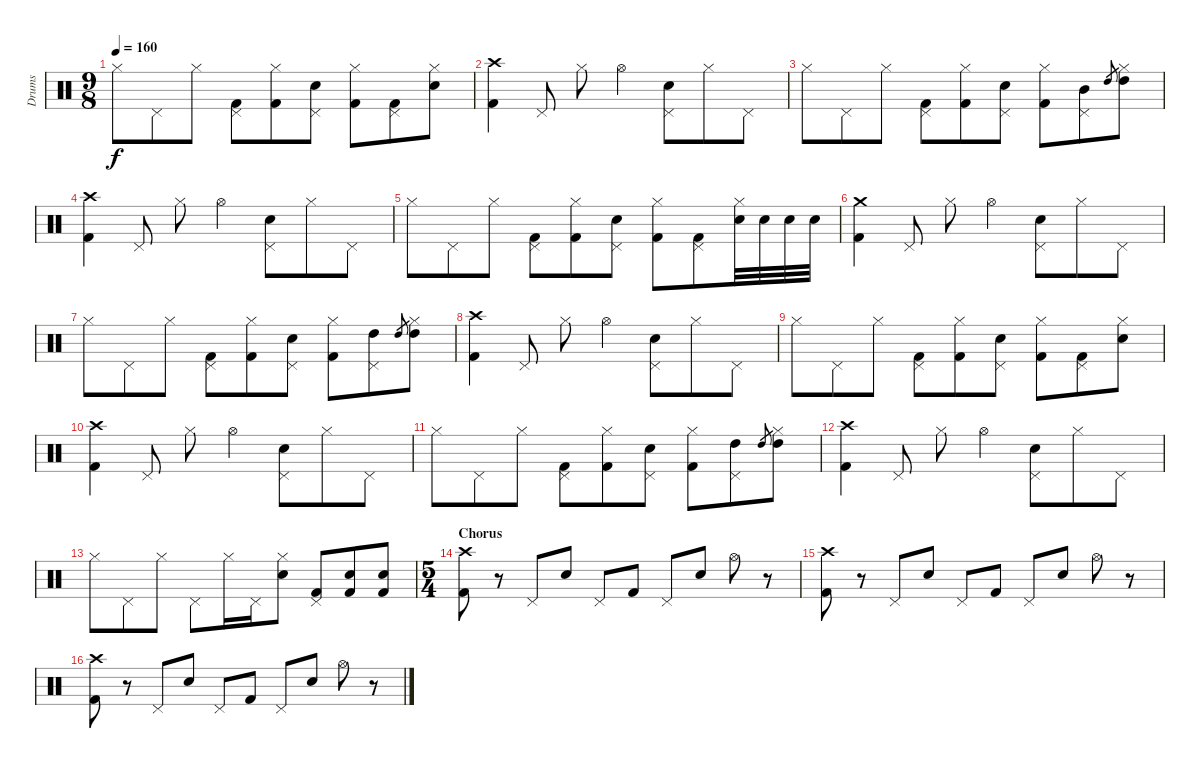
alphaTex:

\track ("Drums" "Drums") {instrument percussion}
\staff {score}
\articulation defaults
\ts (9 8)
\tempo 160
\clef neutral
\ks c "Hi-Hat (closed)".8{dy f} "Pedal Hi-Hat (hit)".8 "Hi-Hat (closed)".8
("Pedal Hi-Hat (hit)" "Kick (hit) 2").8 ("Hi-Hat (closed)" "Kick (hit) 2").8 ("Pedal Hi-Hat (hit)" "Electric Snare (hit)").8 ("Hi-Hat (closed)" "Kick (hit) 2").8 ("Pedal Hi-Hat (hit)" "Kick (hit) 2").8 ("Hi-Hat (closed)" "Electric Snare (hit)").8 |
("Crash high (hit)" "Kick (hit) 2").4 "Pedal Hi-Hat (hit)".8 "Hi-Hat (closed)".8 "Hi-Hat (open)".4 ("Pedal Hi-Hat (hit)" "Electric Snare (hit)").8 "Hi-Hat (closed)".8 "Pedal Hi-Hat (hit)".8 |
"Hi-Hat (closed)".8 "Pedal Hi-Hat (hit)".8 "Hi-Hat (closed)".8 ("Pedal Hi-Hat (hit)" "Kick (hit) 2").8 ("Hi-Hat (closed)" "Kick (hit) 2").8 ("Pedal Hi-Hat (hit)" "Electric Snare (hit)").8 ("Hi-Hat (closed)" "Kick (hit) 2").8 ("Pedal Hi-Hat (hit)" "Mid Tom (hit)").8 "High Tom (hit)".8{gr} ("Hi-Hat (closed)" "High Tom (hit)").8 |
("Crash high (hit)" "Kick (hit) 2").4 "Pedal Hi-Hat (hit)".8 "Hi-Hat (closed)".8 "Hi-Hat (open)".4 ("Pedal Hi-Hat (hit)" "Electric Snare (hit)").8 "Hi-Hat (closed)".8 "Pedal Hi-Hat (hit)".8 |
"Hi-Hat (closed)".8 "Pedal Hi-Hat (hit)".8 "Hi-Hat (closed)".8 ("Pedal Hi-Hat (hit)" "Kick (hit) 2").8 ("Hi-Hat (closed)" "Kick (hit) 2").8 ("Pedal Hi-Hat (hit)" "Electric Snare (hit)").8 ("Hi-Hat (closed)" "Kick (hit) 2").8 ("Pedal Hi-Hat (hit)" "Kick (hit) 2").8 ("Hi-Hat (closed)" "Electric Snare (hit)").32 "Electric Snare (hit)".32 "Electric Snare (hit)".32 "Electric Snare (hit)".32 |
("Crash medium (hit)" "Kick (hit) 2").4 "Pedal Hi-Hat (hit)".8 "Hi-Hat (closed)".8 "Hi-Hat (open)".4 ("Pedal Hi-Hat (hit)" "Electric Snare (hit)").8 "Hi-Hat (closed)".8 "Pedal Hi-Hat (hit)".8 |
"Hi-Hat (closed)".8 "Pedal Hi-Hat (hit)".8 "Hi-Hat (closed)".8 ("Pedal Hi-Hat (hit)" "Kick (hit) 2").8 ("Hi-Hat (closed)" "Kick (hit) 2").8 ("Pedal Hi-Hat (hit)" "Electric Snare (hit)").8 ("Hi-Hat (closed)" "Kick (hit) 2").8 ("Pedal Hi-Hat (hit)" "High Tom (hit)").8 "High Tom (hit)".8{gr} ("Hi-Hat (closed)" "High Tom (hit)").8 |
("Crash high (hit)" "Kick (hit) 2").4 "Pedal Hi-Hat (hit)".8 "Hi-Hat (closed)".8 "Hi-Hat (open)".4 ("Pedal Hi-Hat (hit)" "Electric Snare (hit)").8 "Hi-Hat (closed)".8 "Pedal Hi-Hat (hit)".8 |
"Hi-Hat (closed)".8 "Pedal Hi-Hat (hit)".8 "Hi-Hat (closed)".8 ("Pedal Hi-Hat (hit)" "Kick (hit) 2").8 ("Hi-Hat (closed)" "Kick (hit) 2").8 ("Pedal Hi-Hat (hit)" "Electric Snare (hit)").8 ("Hi-Hat (closed)" "Kick (hit) 2").8 ("Pedal Hi-Hat (hit)" "Kick (hit) 2").8 ("Hi-Hat (closed)" "Electric Snare (hit)").8 |
("Crash high (hit)" "Kick (hit) 2").4 "Pedal Hi-Hat (hit)".8 "Hi-Hat (closed)".8 "Hi-Hat (open)".4 ("Pedal Hi-Hat (hit)" "Electric Snare (hit)").8 "Hi-Hat (closed)".8 "Pedal Hi-Hat (hit)".8 |
"Hi-Hat (closed)".8 "Pedal Hi-Hat (hit)".8 "Hi-Hat (closed)".8 ("Pedal Hi-Hat (hit)" "Kick (hit) 2").8 ("Hi-Hat (closed)" "Kick (hit) 2").8 ("Pedal Hi-Hat (hit)" "Electric Snare (hit)").8 ("Hi-Hat (closed)" "Kick (hit) 2").8 ("Pedal Hi-Hat (hit)" "High Tom (hit)").8 "High Tom (hit)".8{gr} ("Hi-Hat (closed)" "High Tom (hit)").8 |
("Crash high (hit)" "Kick (hit) 2").4 "Pedal Hi-Hat (hit)".8 "Hi-Hat (closed)".8 "Hi-Hat (open)".4 ("Pedal Hi-Hat (hit)" "Electric Snare (hit)").8 "Hi-Hat (closed)".8 "Pedal Hi-Hat (hit)".8 |
"Hi-Hat (closed)".8 "Pedal Hi-Hat (hit)".8 "Hi-Hat (closed)".8 "Pedal Hi-Hat (hit)".8 "Hi-Hat (closed)".16 "Pedal Hi-Hat (hit)".16 ("Hi-Hat (closed)" "Electric Snare (hit)").8 ("Pedal Hi-Hat (hit)" "Kick (hit) 2").8 ("Kick (hit) 2" "Electric Snare (hit)").8 ("Kick (hit) 2" "Electric Snare (hit)").8 |
\ts (5 4)
\section ("" "Chorus")
("Crash high (hit)" "Kick (hit) 2").8 r.8 "Pedal Hi-Hat (hit)".8 "Electric Snare (hit)".8 "Pedal Hi-Hat (hit)".8 "Kick (hit) 2".8 "Pedal Hi-Hat (hit)".8 "Electric Snare (hit)".8 "Hi-Hat (open)".8 r.8 |
("Crash high (hit)" "Kick (hit) 2").8 r.8 "Pedal Hi-Hat (hit)".8 "Electric Snare (hit)".8 "Pedal Hi-Hat (hit)".8 "Kick (hit) 2".8 "Pedal Hi-Hat (hit)".8 "Electric Snare (hit)".8 "Hi-Hat (open)".8 r.8 |
("Crash high (hit)" "Kick (hit) 2").8 r.8 "Pedal Hi-Hat (hit)".8 "Electric Snare (hit)".8 "Pedal Hi-Hat (hit)".8 "Kick (hit) 2".8 "Pedal Hi-Hat (hit)".8 "Electric Snare (hit)".8 "Hi-Hat (open)".8 r.8
